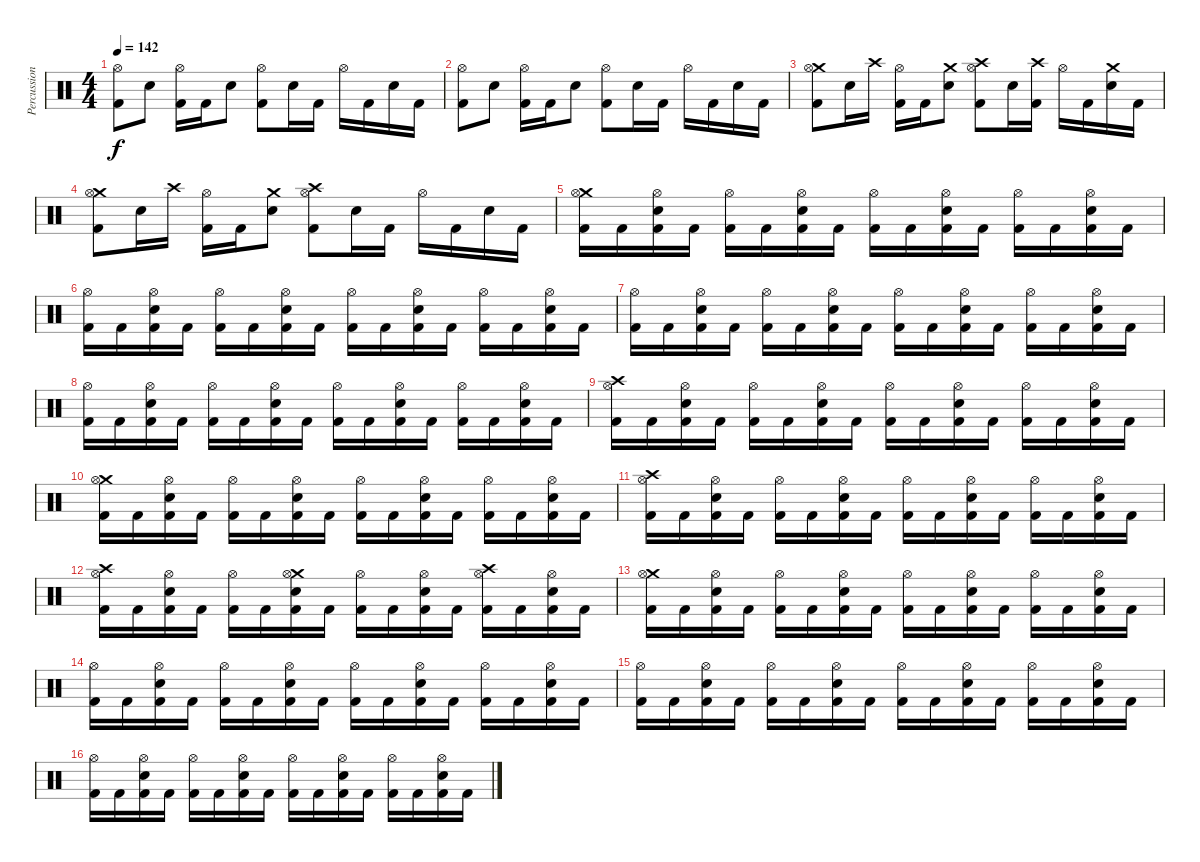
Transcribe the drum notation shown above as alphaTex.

\track ("Percussion" "Percussion") {instrument percussion}
\staff {score}
\articulation defaults
\ts (4 4)
\tempo 142
\clef neutral
\ks c
("Hi-Hat (open)" "Kick (hit) 2").8{dy f} "Electric Snare (hit)".8 ("Hi-Hat (open)" "Kick (hit) 2").16 "Kick (hit) 2".16 "Electric Snare (hit)".8 ("Hi-Hat (open)" "Kick (hit) 2").8 "Electric Snare (hit)".16 "Kick (hit) 2".16 "Hi-Hat (open)".16 "Kick (hit) 2".16 "Electric Snare (hit)".16 "Kick (hit) 2".16 |
("Hi-Hat (open)" "Kick (hit) 2").8 "Electric Snare (hit)".8 ("Hi-Hat (open)" "Kick (hit) 2").16 "Kick (hit) 2".16 "Electric Snare (hit)".8 ("Hi-Hat (open)" "Kick (hit) 2").8 "Electric Snare (hit)".16 "Kick (hit) 2".16 "Hi-Hat (open)".16 "Kick (hit) 2".16 "Electric Snare (hit)".16 "Kick (hit) 2".16 |
("Crash medium (hit)" "Hi-Hat (open)" "Kick (hit) 2").8 "Electric Snare (hit)".16 "Crash high (hit)".16 ("Hi-Hat (open)" "Kick (hit) 2").16 "Kick (hit) 2".16 ("Crash medium (hit)" "Electric Snare (hit)").8 ("Crash high (hit)" "Hi-Hat (open)" "Kick (hit) 2").8 "Electric Snare (hit)".16 ("Crash high (hit)" "Kick (hit) 2").16 "Hi-Hat (open)".16 "Kick (hit) 2".16 ("Crash medium (hit)" "Electric Snare (hit)").16 "Kick (hit) 2".16 |
("Crash medium (hit)" "Hi-Hat (open)" "Kick (hit) 2").8 "Electric Snare (hit)".16 "Crash high (hit)".16 ("Hi-Hat (open)" "Kick (hit) 2").16 "Kick (hit) 2".16 ("Crash medium (hit)" "Electric Snare (hit)").8 ("Crash high (hit)" "Hi-Hat (open)" "Kick (hit) 2").8 "Electric Snare (hit)".16 "Kick (hit) 2".16 "Hi-Hat (open)".16 "Kick (hit) 2".16 "Electric Snare (hit)".16 "Kick (hit) 2".16 |
("Crash medium (hit)" "Hi-Hat (open)" "Kick (hit) 2").16 "Kick (hit) 2".16 ("Hi-Hat (open)" "Electric Snare (hit)" "Kick (hit) 2").16 "Kick (hit) 2".16 ("Hi-Hat (open)" "Kick (hit) 2").16 "Kick (hit) 2".16 ("Hi-Hat (open)" "Electric Snare (hit)" "Kick (hit) 2").16 "Kick (hit) 2".16 ("Hi-Hat (open)" "Kick (hit) 2").16 "Kick (hit) 2".16 ("Hi-Hat (open)" "Electric Snare (hit)" "Kick (hit) 2").16 "Kick (hit) 2".16 ("Hi-Hat (open)" "Kick (hit) 2").16 "Kick (hit) 2".16 ("Hi-Hat (open)" "Electric Snare (hit)" "Kick (hit) 2").16 "Kick (hit) 2".16 |
("Hi-Hat (open)" "Kick (hit) 2").16 "Kick (hit) 2".16 ("Hi-Hat (open)" "Electric Snare (hit)" "Kick (hit) 2").16 "Kick (hit) 2".16 ("Hi-Hat (open)" "Kick (hit) 2").16 "Kick (hit) 2".16 ("Hi-Hat (open)" "Electric Snare (hit)" "Kick (hit) 2").16 "Kick (hit) 2".16 ("Hi-Hat (open)" "Kick (hit) 2").16 "Kick (hit) 2".16 ("Hi-Hat (open)" "Electric Snare (hit)" "Kick (hit) 2").16 "Kick (hit) 2".16 ("Hi-Hat (open)" "Kick (hit) 2").16 "Kick (hit) 2".16 ("Hi-Hat (open)" "Electric Snare (hit)" "Kick (hit) 2").16 "Kick (hit) 2".16 |
("Hi-Hat (open)" "Kick (hit) 2").16 "Kick (hit) 2".16 ("Hi-Hat (open)" "Electric Snare (hit)" "Kick (hit) 2").16 "Kick (hit) 2".16 ("Hi-Hat (open)" "Kick (hit) 2").16 "Kick (hit) 2".16 ("Hi-Hat (open)" "Electric Snare (hit)" "Kick (hit) 2").16 "Kick (hit) 2".16 ("Hi-Hat (open)" "Kick (hit) 2").16 "Kick (hit) 2".16 ("Hi-Hat (open)" "Electric Snare (hit)" "Kick (hit) 2").16 "Kick (hit) 2".16 ("Hi-Hat (open)" "Kick (hit) 2").16 "Kick (hit) 2".16 ("Hi-Hat (open)" "Electric Snare (hit)" "Kick (hit) 2").16 "Kick (hit) 2".16 |
("Hi-Hat (open)" "Kick (hit) 2").16 "Kick (hit) 2".16 ("Hi-Hat (open)" "Electric Snare (hit)" "Kick (hit) 2").16 "Kick (hit) 2".16 ("Hi-Hat (open)" "Kick (hit) 2").16 "Kick (hit) 2".16 ("Hi-Hat (open)" "Electric Snare (hit)" "Kick (hit) 2").16 "Kick (hit) 2".16 ("Hi-Hat (open)" "Kick (hit) 2").16 "Kick (hit) 2".16 ("Hi-Hat (open)" "Electric Snare (hit)" "Kick (hit) 2").16 "Kick (hit) 2".16 ("Hi-Hat (open)" "Kick (hit) 2").16 "Kick (hit) 2".16 ("Hi-Hat (open)" "Electric Snare (hit)" "Kick (hit) 2").16 "Kick (hit) 2".16 |
("Crash high (hit)" "Hi-Hat (open)" "Kick (hit) 2").16 "Kick (hit) 2".16 ("Hi-Hat (open)" "Electric Snare (hit)" "Kick (hit) 2").16 "Kick (hit) 2".16 ("Hi-Hat (open)" "Kick (hit) 2").16 "Kick (hit) 2".16 ("Hi-Hat (open)" "Electric Snare (hit)" "Kick (hit) 2").16 "Kick (hit) 2".16 ("Hi-Hat (open)" "Kick (hit) 2").16 "Kick (hit) 2".16 ("Hi-Hat (open)" "Electric Snare (hit)" "Kick (hit) 2").16 "Kick (hit) 2".16 ("Hi-Hat (open)" "Kick (hit) 2").16 "Kick (hit) 2".16 ("Hi-Hat (open)" "Electric Snare (hit)" "Kick (hit) 2").16 "Kick (hit) 2".16 |
("Crash medium (hit)" "Hi-Hat (open)" "Kick (hit) 2").16 "Kick (hit) 2".16 ("Hi-Hat (open)" "Electric Snare (hit)" "Kick (hit) 2").16 "Kick (hit) 2".16 ("Hi-Hat (open)" "Kick (hit) 2").16 "Kick (hit) 2".16 ("Hi-Hat (open)" "Electric Snare (hit)" "Kick (hit) 2").16 "Kick (hit) 2".16 ("Hi-Hat (open)" "Kick (hit) 2").16 "Kick (hit) 2".16 ("Hi-Hat (open)" "Electric Snare (hit)" "Kick (hit) 2").16 "Kick (hit) 2".16 ("Hi-Hat (open)" "Kick (hit) 2").16 "Kick (hit) 2".16 ("Hi-Hat (open)" "Electric Snare (hit)" "Kick (hit) 2").16 "Kick (hit) 2".16 |
("Crash high (hit)" "Hi-Hat (open)" "Kick (hit) 2").16 "Kick (hit) 2".16 ("Hi-Hat (open)" "Electric Snare (hit)" "Kick (hit) 2").16 "Kick (hit) 2".16 ("Hi-Hat (open)" "Kick (hit) 2").16 "Kick (hit) 2".16 ("Hi-Hat (open)" "Electric Snare (hit)" "Kick (hit) 2").16 "Kick (hit) 2".16 ("Hi-Hat (open)" "Kick (hit) 2").16 "Kick (hit) 2".16 ("Hi-Hat (open)" "Electric Snare (hit)" "Kick (hit) 2").16 "Kick (hit) 2".16 ("Hi-Hat (open)" "Kick (hit) 2").16 "Kick (hit) 2".16 ("Hi-Hat (open)" "Electric Snare (hit)" "Kick (hit) 2").16 "Kick (hit) 2".16 |
("Crash high (hit)" "Hi-Hat (open)" "Kick (hit) 2").16 "Kick (hit) 2".16 ("Hi-Hat (open)" "Electric Snare (hit)" "Kick (hit) 2").16 "Kick (hit) 2".16 ("Hi-Hat (open)" "Kick (hit) 2").16 "Kick (hit) 2".16 ("Crash medium (hit)" "Hi-Hat (open)" "Electric Snare (hit)" "Kick (hit) 2").16 "Kick (hit) 2".16 ("Hi-Hat (open)" "Kick (hit) 2").16 "Kick (hit) 2".16 ("Hi-Hat (open)" "Electric Snare (hit)" "Kick (hit) 2").16 "Kick (hit) 2".16 ("Crash high (hit)" "Hi-Hat (open)" "Kick (hit) 2").16 "Kick (hit) 2".16 ("Hi-Hat (open)" "Electric Snare (hit)" "Kick (hit) 2").16 "Kick (hit) 2".16 |
("Crash medium (hit)" "Hi-Hat (open)" "Kick (hit) 2").16 "Kick (hit) 2".16 ("Hi-Hat (open)" "Electric Snare (hit)" "Kick (hit) 2").16 "Kick (hit) 2".16 ("Hi-Hat (open)" "Kick (hit) 2").16 "Kick (hit) 2".16 ("Hi-Hat (open)" "Electric Snare (hit)" "Kick (hit) 2").16 "Kick (hit) 2".16 ("Hi-Hat (open)" "Kick (hit) 2").16 "Kick (hit) 2".16 ("Hi-Hat (open)" "Electric Snare (hit)" "Kick (hit) 2").16 "Kick (hit) 2".16 ("Hi-Hat (open)" "Kick (hit) 2").16 "Kick (hit) 2".16 ("Hi-Hat (open)" "Electric Snare (hit)" "Kick (hit) 2").16 "Kick (hit) 2".16 |
("Hi-Hat (open)" "Kick (hit) 2").16 "Kick (hit) 2".16 ("Hi-Hat (open)" "Electric Snare (hit)" "Kick (hit) 2").16 "Kick (hit) 2".16 ("Hi-Hat (open)" "Kick (hit) 2").16 "Kick (hit) 2".16 ("Hi-Hat (open)" "Electric Snare (hit)" "Kick (hit) 2").16 "Kick (hit) 2".16 ("Hi-Hat (open)" "Kick (hit) 2").16 "Kick (hit) 2".16 ("Hi-Hat (open)" "Electric Snare (hit)" "Kick (hit) 2").16 "Kick (hit) 2".16 ("Hi-Hat (open)" "Kick (hit) 2").16 "Kick (hit) 2".16 ("Hi-Hat (open)" "Electric Snare (hit)" "Kick (hit) 2").16 "Kick (hit) 2".16 |
("Hi-Hat (open)" "Kick (hit) 2").16 "Kick (hit) 2".16 ("Hi-Hat (open)" "Electric Snare (hit)" "Kick (hit) 2").16 "Kick (hit) 2".16 ("Hi-Hat (open)" "Kick (hit) 2").16 "Kick (hit) 2".16 ("Hi-Hat (open)" "Electric Snare (hit)" "Kick (hit) 2").16 "Kick (hit) 2".16 ("Hi-Hat (open)" "Kick (hit) 2").16 "Kick (hit) 2".16 ("Hi-Hat (open)" "Electric Snare (hit)" "Kick (hit) 2").16 "Kick (hit) 2".16 ("Hi-Hat (open)" "Kick (hit) 2").16 "Kick (hit) 2".16 ("Hi-Hat (open)" "Electric Snare (hit)" "Kick (hit) 2").16 "Kick (hit) 2".16 |
("Hi-Hat (open)" "Kick (hit) 2").16 "Kick (hit) 2".16 ("Hi-Hat (open)" "Electric Snare (hit)" "Kick (hit) 2").16 "Kick (hit) 2".16 ("Hi-Hat (open)" "Kick (hit) 2").16 "Kick (hit) 2".16 ("Hi-Hat (open)" "Electric Snare (hit)" "Kick (hit) 2").16 "Kick (hit) 2".16 ("Hi-Hat (open)" "Kick (hit) 2").16 "Kick (hit) 2".16 ("Hi-Hat (open)" "Electric Snare (hit)" "Kick (hit) 2").16 "Kick (hit) 2".16 ("Hi-Hat (open)" "Kick (hit) 2").16 "Kick (hit) 2".16 ("Hi-Hat (open)" "Electric Snare (hit)" "Kick (hit) 2").16 "Kick (hit) 2".16
